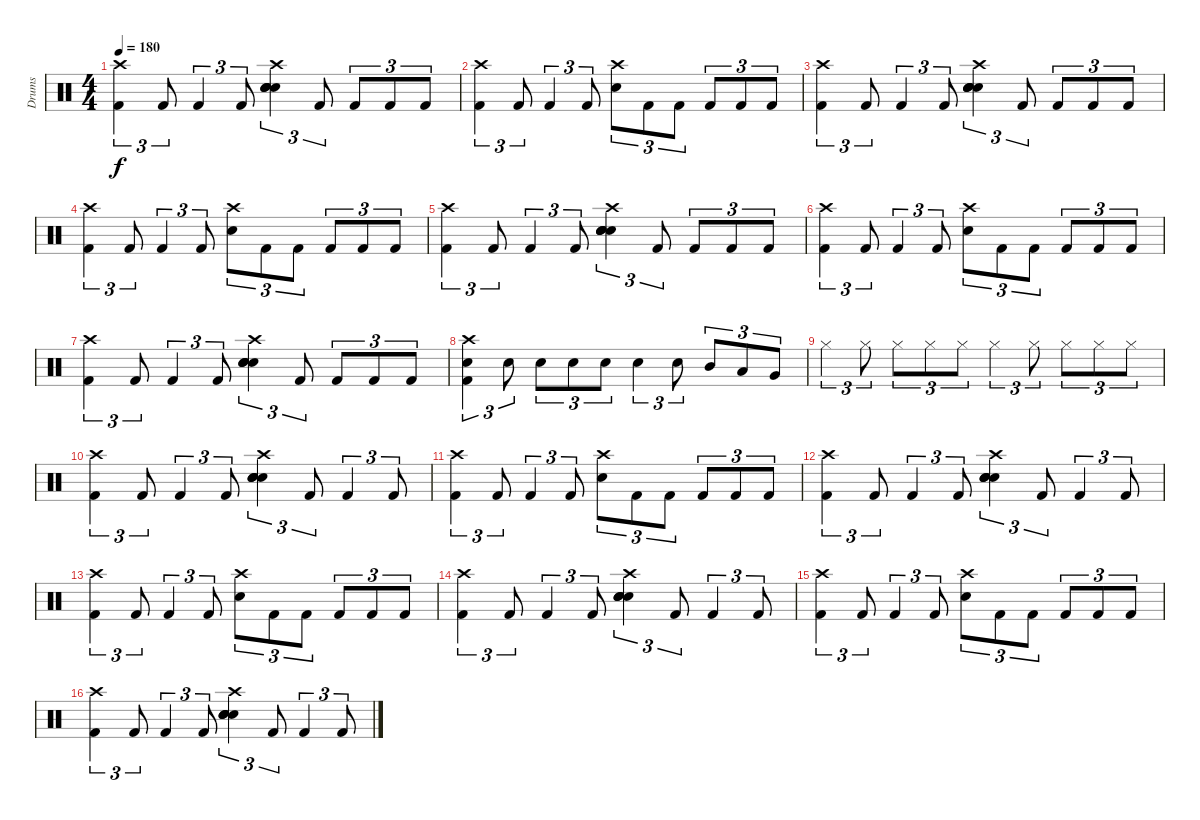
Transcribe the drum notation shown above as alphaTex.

\track ("Drums" "Drums") {instrument percussion}
\staff {score}
\articulation defaults
\ts (4 4)
\tempo 180
\clef neutral
\ks c
("Crash high (hit)" "Kick (hit) 2").4{tu (3 2) dy f} "Kick (hit) 2".8{tu (3 2)} "Kick (hit) 2".4{tu (3 2)} "Kick (hit) 2".8{tu (3 2)} ("Crash high (hit)" "Electric Snare (hit)" "Snare (hit) 2" "Electric Snare (hit)" "Snare (hit) 2").4{tu (3 2)} "Kick (hit) 2".8{tu (3 2)} "Kick (hit) 2".8{tu (3 2)} "Kick (hit) 2".8{tu (3 2)} "Kick (hit) 2".8{tu (3 2)} |
("Crash high (hit)" "Kick (hit) 2").4{tu (3 2)} "Kick (hit) 2".8{tu (3 2)} "Kick (hit) 2".4{tu (3 2)} "Kick (hit) 2".8{tu (3 2)} ("Crash high (hit)" "Snare (hit) 2").8{tu (3 2)} "Kick (hit) 2".8{tu (3 2)} "Kick (hit) 2".8{tu (3 2)} "Kick (hit) 2".8{tu (3 2)} "Kick (hit) 2".8{tu (3 2)} "Kick (hit) 2".8{tu (3 2)} |
("Crash high (hit)" "Kick (hit) 2").4{tu (3 2)} "Kick (hit) 2".8{tu (3 2)} "Kick (hit) 2".4{tu (3 2)} "Kick (hit) 2".8{tu (3 2)} ("Crash high (hit)" "Electric Snare (hit)" "Snare (hit) 2" "Electric Snare (hit)" "Snare (hit) 2").4{tu (3 2)} "Kick (hit) 2".8{tu (3 2)} "Kick (hit) 2".8{tu (3 2)} "Kick (hit) 2".8{tu (3 2)} "Kick (hit) 2".8{tu (3 2)} |
("Crash high (hit)" "Kick (hit) 2").4{tu (3 2)} "Kick (hit) 2".8{tu (3 2)} "Kick (hit) 2".4{tu (3 2)} "Kick (hit) 2".8{tu (3 2)} ("Crash high (hit)" "Snare (hit) 2").8{tu (3 2)} "Kick (hit) 2".8{tu (3 2)} "Kick (hit) 2".8{tu (3 2)} "Kick (hit) 2".8{tu (3 2)} "Kick (hit) 2".8{tu (3 2)} "Kick (hit) 2".8{tu (3 2)} |
("Crash high (hit)" "Kick (hit) 2").4{tu (3 2)} "Kick (hit) 2".8{tu (3 2)} "Kick (hit) 2".4{tu (3 2)} "Kick (hit) 2".8{tu (3 2)} ("Crash high (hit)" "Electric Snare (hit)" "Snare (hit) 2" "Electric Snare (hit)" "Snare (hit) 2").4{tu (3 2)} "Kick (hit) 2".8{tu (3 2)} "Kick (hit) 2".8{tu (3 2)} "Kick (hit) 2".8{tu (3 2)} "Kick (hit) 2".8{tu (3 2)} |
("Crash high (hit)" "Kick (hit) 2").4{tu (3 2)} "Kick (hit) 2".8{tu (3 2)} "Kick (hit) 2".4{tu (3 2)} "Kick (hit) 2".8{tu (3 2)} ("Crash high (hit)" "Snare (hit) 2").8{tu (3 2)} "Kick (hit) 2".8{tu (3 2)} "Kick (hit) 2".8{tu (3 2)} "Kick (hit) 2".8{tu (3 2)} "Kick (hit) 2".8{tu (3 2)} "Kick (hit) 2".8{tu (3 2)} |
("Crash high (hit)" "Kick (hit) 2").4{tu (3 2)} "Kick (hit) 2".8{tu (3 2)} "Kick (hit) 2".4{tu (3 2)} "Kick (hit) 2".8{tu (3 2)} ("Crash high (hit)" "Electric Snare (hit)" "Snare (hit) 2" "Electric Snare (hit)" "Snare (hit) 2").4{tu (3 2)} "Kick (hit) 2".8{tu (3 2)} "Kick (hit) 2".8{tu (3 2)} "Kick (hit) 2".8{tu (3 2)} "Kick (hit) 2".8{tu (3 2)} |
("Crash high (hit)" "Snare (hit) 2" "Kick (hit) 2").4{tu (3 2)} "Snare (hit) 2".8{tu (3 2)} "Snare (hit) 2".8{tu (3 2)} "Snare (hit) 2".8{tu (3 2)} "Snare (hit) 2".8{tu (3 2)} "Snare (hit) 2".4{tu (3 2)} "Snare (hit) 2".8{tu (3 2)} "Mid Tom (hit)".8{tu (3 2)} "Low Tom (hit)".8{tu (3 2)} "Very Low Tom (hit)".8{tu (3 2)} |
"Hi-Hat (closed)".4{tu (3 2)} "Hi-Hat (closed)".8{tu (3 2)} "Hi-Hat (closed)".8{tu (3 2)} "Hi-Hat (closed)".8{tu (3 2)} "Hi-Hat (closed)".8{tu (3 2)} "Hi-Hat (closed)".4{tu (3 2)} "Hi-Hat (closed)".8{tu (3 2)} "Hi-Hat (closed)".8{tu (3 2)} "Hi-Hat (closed)".8{tu (3 2)} "Hi-Hat (closed)".8{tu (3 2)} |
("Crash high (hit)" "Kick (hit) 2").4{tu (3 2)} "Kick (hit) 2".8{tu (3 2)} "Kick (hit) 2".4{tu (3 2)} "Kick (hit) 2".8{tu (3 2)} ("Crash high (hit)" "Electric Snare (hit)" "Snare (hit) 2" "Electric Snare (hit)" "Snare (hit) 2").4{tu (3 2)} "Kick (hit) 2".8{tu (3 2)} "Kick (hit) 2".4{tu (3 2)} "Kick (hit) 2".8{tu (3 2)} |
("Crash high (hit)" "Kick (hit) 2").4{tu (3 2)} "Kick (hit) 2".8{tu (3 2)} "Kick (hit) 2".4{tu (3 2)} "Kick (hit) 2".8{tu (3 2)} ("Crash high (hit)" "Snare (hit) 2").8{tu (3 2)} "Kick (hit) 2".8{tu (3 2)} "Kick (hit) 2".8{tu (3 2)} "Kick (hit) 2".8{tu (3 2)} "Kick (hit) 2".8{tu (3 2)} "Kick (hit) 2".8{tu (3 2)} |
("Crash high (hit)" "Kick (hit) 2").4{tu (3 2)} "Kick (hit) 2".8{tu (3 2)} "Kick (hit) 2".4{tu (3 2)} "Kick (hit) 2".8{tu (3 2)} ("Crash high (hit)" "Electric Snare (hit)" "Snare (hit) 2" "Electric Snare (hit)" "Snare (hit) 2").4{tu (3 2)} "Kick (hit) 2".8{tu (3 2)} "Kick (hit) 2".4{tu (3 2)} "Kick (hit) 2".8{tu (3 2)} |
("Crash high (hit)" "Kick (hit) 2").4{tu (3 2)} "Kick (hit) 2".8{tu (3 2)} "Kick (hit) 2".4{tu (3 2)} "Kick (hit) 2".8{tu (3 2)} ("Crash high (hit)" "Snare (hit) 2").8{tu (3 2)} "Kick (hit) 2".8{tu (3 2)} "Kick (hit) 2".8{tu (3 2)} "Kick (hit) 2".8{tu (3 2)} "Kick (hit) 2".8{tu (3 2)} "Kick (hit) 2".8{tu (3 2)} |
("Crash high (hit)" "Kick (hit) 2").4{tu (3 2)} "Kick (hit) 2".8{tu (3 2)} "Kick (hit) 2".4{tu (3 2)} "Kick (hit) 2".8{tu (3 2)} ("Crash high (hit)" "Electric Snare (hit)" "Snare (hit) 2" "Electric Snare (hit)" "Snare (hit) 2").4{tu (3 2)} "Kick (hit) 2".8{tu (3 2)} "Kick (hit) 2".4{tu (3 2)} "Kick (hit) 2".8{tu (3 2)} |
("Crash high (hit)" "Kick (hit) 2").4{tu (3 2)} "Kick (hit) 2".8{tu (3 2)} "Kick (hit) 2".4{tu (3 2)} "Kick (hit) 2".8{tu (3 2)} ("Crash high (hit)" "Snare (hit) 2").8{tu (3 2)} "Kick (hit) 2".8{tu (3 2)} "Kick (hit) 2".8{tu (3 2)} "Kick (hit) 2".8{tu (3 2)} "Kick (hit) 2".8{tu (3 2)} "Kick (hit) 2".8{tu (3 2)} |
("Crash high (hit)" "Kick (hit) 2").4{tu (3 2)} "Kick (hit) 2".8{tu (3 2)} "Kick (hit) 2".4{tu (3 2)} "Kick (hit) 2".8{tu (3 2)} ("Crash high (hit)" "Electric Snare (hit)" "Snare (hit) 2" "Electric Snare (hit)" "Snare (hit) 2").4{tu (3 2)} "Kick (hit) 2".8{tu (3 2)} "Kick (hit) 2".4{tu (3 2)} "Kick (hit) 2".8{tu (3 2)}
